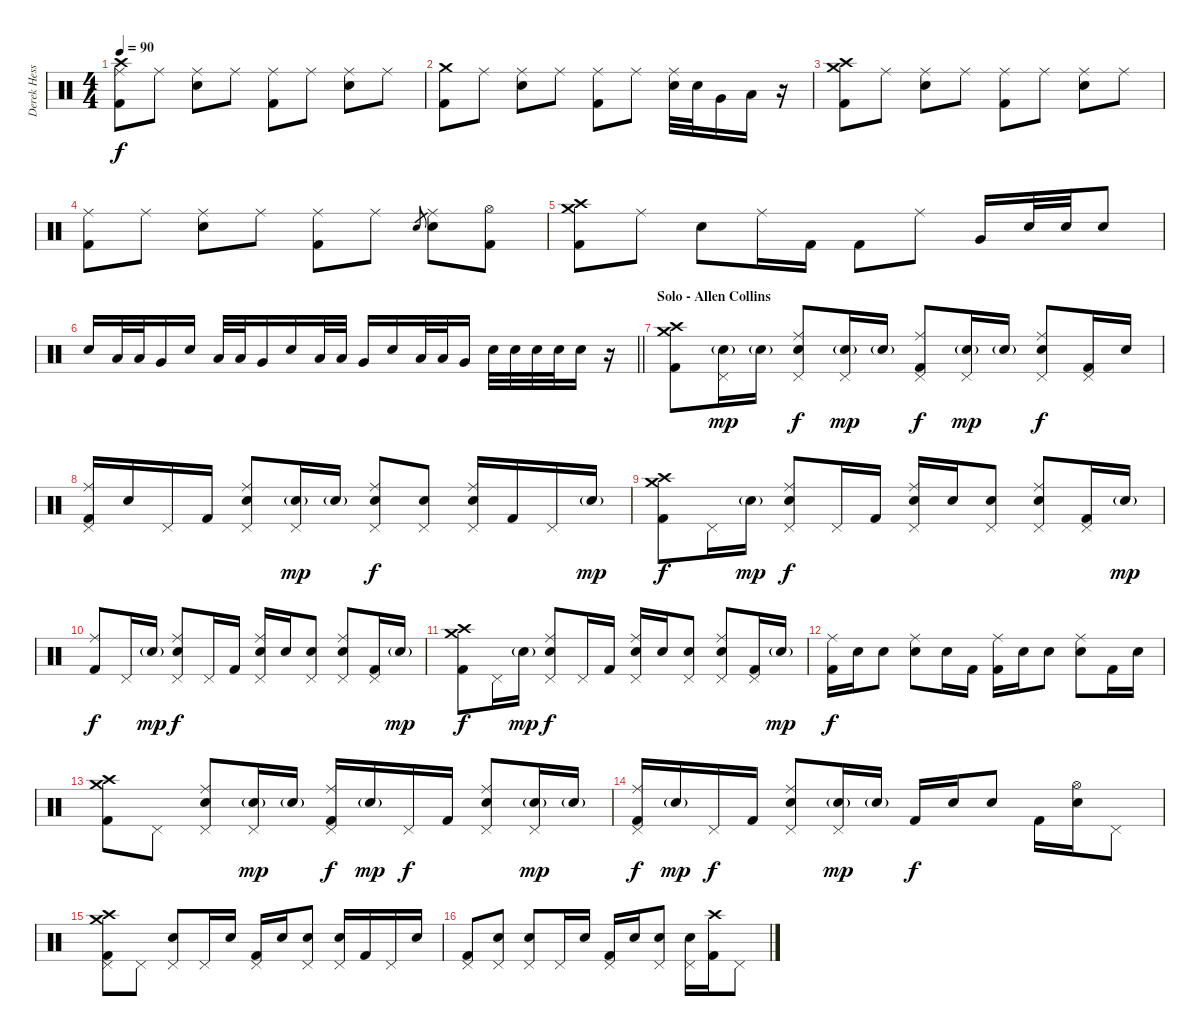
\track ("Derek Hess (Drums and Percussion)" "Derek Hess") {instrument percussion}
\staff {score}
\articulation defaults
\ts (4 4)
\tempo 90
\clef neutral
\ks c
("Crash high (hit)" "Ride (middle)" "Kick (hit) 2").8{dy f} "Ride (middle)".8 ("Ride (middle)" "Snare (hit) 2").8 "Ride (middle)".8 ("Ride (middle)" "Kick (hit) 2").8 "Ride (middle)".8 ("Ride (middle)" "Snare (hit) 2").8 "Ride (middle)".8 |
("Crash medium (hit)" "Kick (hit) 2").8 "Ride (middle)".8 ("Ride (middle)" "Snare (hit) 2").8 "Ride (middle)".8 ("Ride (middle)" "Kick (hit) 2").8 "Ride (middle)".8 ("Ride (middle)" "Snare (hit) 2").32 "Snare (hit) 2".32 "Very Low Tom (hit)".16 "Low Floor Tom (hit)".16 r.16 |
("Crash medium (hit)" "Crash high (hit)" "Kick (hit) 2").8 "Ride (middle)".8 ("Ride (middle)" "Snare (hit) 2").8 "Ride (middle)".8 ("Ride (middle)" "Kick (hit) 2").8 "Ride (middle)".8 ("Ride (middle)" "Snare (hit) 2").8 "Ride (middle)".8 |
("Ride (middle)" "Kick (hit) 2").8 "Ride (middle)".8 ("Ride (middle)" "Snare (hit) 2").8 "Ride (middle)".8 ("Ride (middle)" "Kick (hit) 2").8 "Ride (middle)".8 "Snare (hit) 2".8{gr} ("Ride (middle)" "Snare (hit) 2").8 ("Hi-Hat (open)" "Kick (hit) 2").8 |
("Crash medium (hit)" "Crash high (hit)" "Kick (hit) 2").8 "Ride (middle)".8 "Snare (hit) 2".8 "Ride (middle)".16 "Kick (hit) 2".16 "Kick (hit) 2".8 "Ride (middle)".8 "Very Low Tom (hit)".16 "Snare (hit) 2".32 "Snare (hit) 2".32 "Snare (hit) 2".8 |
\barLineRight lightlight "Snare (hit) 2".16 "Low Tom (hit)".32 "Low Tom (hit)".32 "Very Low Tom (hit)".16 "Snare (hit) 2".16 "Low Tom (hit)".32 "Low Tom (hit)".32 "Very Low Tom (hit)".16 "Snare (hit) 2".16 "Low Tom (hit)".32 "Low Tom (hit)".32 "Very Low Tom (hit)".16 "Snare (hit) 2".16 "Low Tom (hit)".32 "Low Tom (hit)".32 "Very Low Tom (hit)".16 "Snare (hit) 2".32 "Snare (hit) 2".32 "Snare (hit) 2".32 "Snare (hit) 2".32 "Snare (hit) 2".16
r.16 |
\section ("" "Solo - Allen Collins")
("Crash medium (hit)" "Crash high (hit)" "Kick (hit) 2").8 ("Snare (hit) 2"{g} "Pedal Hi-Hat (hit)").16{dy mp} "Snare (hit) 2"{g}.16 ("Ride (middle)" "Snare (hit) 2" "Pedal Hi-Hat (hit)").8{dy f} ("Snare (hit) 2"{g} "Pedal Hi-Hat (hit)").16{dy mp} "Snare (hit) 2"{g}.16 ("Ride (middle)" "Pedal Hi-Hat (hit)" "Kick (hit) 2").8{dy f} ("Snare (hit) 2"{g} "Pedal Hi-Hat (hit)").16{dy mp} "Snare (hit) 2"{g}.16 ("Ride (middle)" "Snare (hit) 2" "Pedal Hi-Hat (hit)").8{dy f} ("Pedal Hi-Hat (hit)" "Kick (hit) 2").16 "Snare (hit) 2".16 |
("Ride (middle)" "Pedal Hi-Hat (hit)" "Kick (hit) 2").16 "Snare (hit) 2".16 "Pedal Hi-Hat (hit)".16 "Kick (hit) 2".16 ("Ride (middle)" "Snare (hit) 2" "Pedal Hi-Hat (hit)").8 ("Snare (hit) 2"{g} "Pedal Hi-Hat (hit)").16{dy mp} "Snare (hit) 2"{g}.16 ("Ride (middle)" "Snare (hit) 2" "Pedal Hi-Hat (hit)").8{dy f} ("Snare (hit) 2" "Pedal Hi-Hat (hit)").8 ("Ride (middle)" "Snare (hit) 2" "Pedal Hi-Hat (hit)").16 "Kick (hit) 2".16 "Pedal Hi-Hat (hit)".16 "Snare (hit) 2"{g}.16{dy mp} |
("Crash medium (hit)" "Crash high (hit)" "Kick (hit) 2").8{dy f} "Pedal Hi-Hat (hit)".16 "Snare (hit) 2"{g}.16{dy mp} ("Ride (middle)" "Snare (hit) 2" "Pedal Hi-Hat (hit)").8{dy f} "Pedal Hi-Hat (hit)".16 "Kick (hit) 2".16 ("Ride (middle)" "Snare (hit) 2" "Pedal Hi-Hat (hit)").16 "Snare (hit) 2".16 ("Snare (hit) 2" "Pedal Hi-Hat (hit)").8 ("Ride (middle)" "Snare (hit) 2" "Pedal Hi-Hat (hit)").8 ("Pedal Hi-Hat (hit)" "Kick (hit) 2").16 "Snare (hit) 2"{g}.16{dy mp} |
("Ride (middle)" "Kick (hit) 2").8{dy f} "Pedal Hi-Hat (hit)".16 "Snare (hit) 2"{g}.16{dy mp} ("Ride (middle)" "Snare (hit) 2" "Pedal Hi-Hat (hit)").8{dy f} "Pedal Hi-Hat (hit)".16 "Kick (hit) 2".16 ("Ride (middle)" "Snare (hit) 2" "Pedal Hi-Hat (hit)").16 "Snare (hit) 2".16 ("Snare (hit) 2" "Pedal Hi-Hat (hit)").8 ("Ride (middle)" "Snare (hit) 2" "Pedal Hi-Hat (hit)").8 ("Pedal Hi-Hat (hit)" "Kick (hit) 2").16 "Snare (hit) 2"{g}.16{dy mp} |
("Crash medium (hit)" "Crash high (hit)" "Kick (hit) 2").8{dy f} "Pedal Hi-Hat (hit)".16 "Snare (hit) 2"{g}.16{dy mp} ("Ride (middle)" "Snare (hit) 2" "Pedal Hi-Hat (hit)").8{dy f} "Pedal Hi-Hat (hit)".16 "Kick (hit) 2".16 ("Ride (middle)" "Snare (hit) 2" "Pedal Hi-Hat (hit)").16 "Snare (hit) 2".16 ("Snare (hit) 2" "Pedal Hi-Hat (hit)").8 ("Ride (middle)" "Snare (hit) 2" "Pedal Hi-Hat (hit)").8 ("Pedal Hi-Hat (hit)" "Kick (hit) 2").16 "Snare (hit) 2"{g}.16{dy mp} |
("Ride (middle)" "Kick (hit) 2").16{dy f} "Snare (hit) 2".16 "Snare (hit) 2".8 ("Ride (middle)" "Snare (hit) 2").8 "Snare (hit) 2".16 "Kick (hit) 2".16 ("Ride (middle)" "Kick (hit) 2").16 "Snare (hit) 2".16 "Snare (hit) 2".8 ("Ride (middle)" "Snare (hit) 2").8 "Kick (hit) 2".16 "Snare (hit) 2".16 |
("Crash medium (hit)" "Crash high (hit)" "Kick (hit) 2").8 "Pedal Hi-Hat (hit)".8 ("Ride (middle)" "Snare (hit) 2" "Pedal Hi-Hat (hit)").8 ("Snare (hit) 2"{g} "Pedal Hi-Hat (hit)").16{dy mp} "Snare (hit) 2"{g}.16 ("Ride (middle)" "Pedal Hi-Hat (hit)" "Kick (hit) 2").16{dy f} "Snare (hit) 2"{g}.16{dy mp} "Pedal Hi-Hat (hit)".16{dy f} "Kick (hit) 2".16 ("Ride (middle)" "Snare (hit) 2" "Pedal Hi-Hat (hit)").8 ("Snare (hit) 2"{g} "Pedal Hi-Hat (hit)").16{dy mp} "Snare (hit) 2"{g}.16 |
("Ride (middle)" "Pedal Hi-Hat (hit)" "Kick (hit) 2").16{dy f} "Snare (hit) 2"{g}.16{dy mp} "Pedal Hi-Hat (hit)".16{dy f} "Kick (hit) 2".16 ("Ride (middle)" "Snare (hit) 2" "Pedal Hi-Hat (hit)").8 ("Snare (hit) 2"{g} "Pedal Hi-Hat (hit)").16{dy mp} "Snare (hit) 2"{g}.16 "Kick (hit) 2".16{dy f} "Snare (hit) 2".16 "Snare (hit) 2".8 "Kick (hit) 2".16 ("Snare (hit) 2" "Hi-Hat (open)").16 "Pedal Hi-Hat (hit)".8 |
("Crash medium (hit)" "Crash high (hit)" "Pedal Hi-Hat (hit)" "Kick (hit) 2").8 "Pedal Hi-Hat (hit)".8 ("Snare (hit) 2" "Pedal Hi-Hat (hit)").8 "Pedal Hi-Hat (hit)".16 "Snare (hit) 2".16 ("Pedal Hi-Hat (hit)" "Kick (hit) 2").16 "Snare (hit) 2".16 ("Snare (hit) 2" "Pedal Hi-Hat (hit)").8 ("Snare (hit) 2" "Pedal Hi-Hat (hit)").16 "Kick (hit) 2".16 "Pedal Hi-Hat (hit)".16 "Snare (hit) 2".16 |
("Pedal Hi-Hat (hit)" "Kick (hit) 2").8 ("Snare (hit) 2" "Pedal Hi-Hat (hit)").8 ("Snare (hit) 2" "Pedal Hi-Hat (hit)").8 "Pedal Hi-Hat (hit)".16 "Snare (hit) 2".16 ("Pedal Hi-Hat (hit)" "Kick (hit) 2").16 "Snare (hit) 2".16 ("Snare (hit) 2" "Pedal Hi-Hat (hit)").8 ("Snare (hit) 2" "Pedal Hi-Hat (hit)").16 ("Crash high (hit)" "Kick (hit) 2").16 "Pedal Hi-Hat (hit)".8
